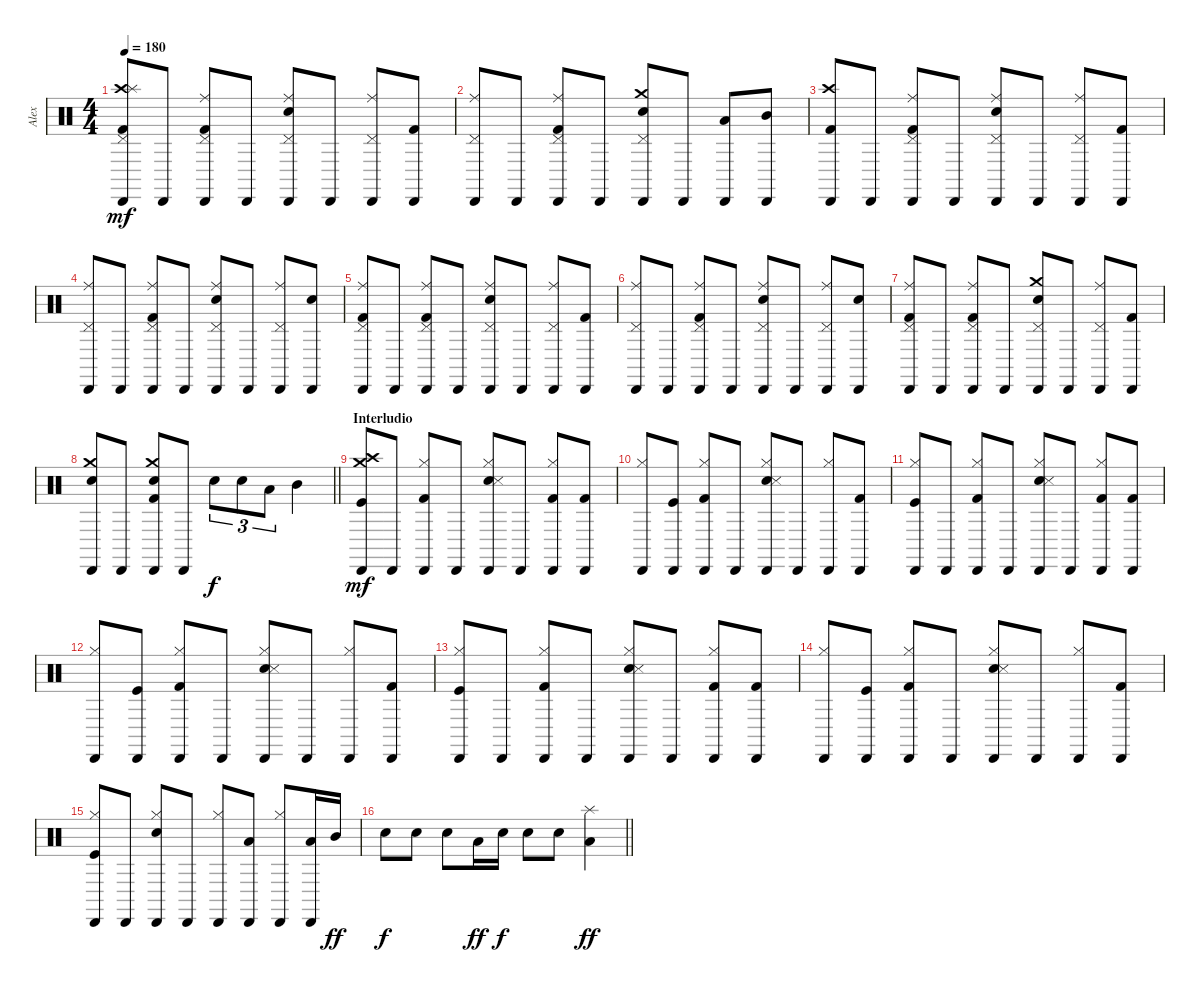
\track ("Alex" "Alex") {instrument percussion}
\staff {score}
\articulation defaults
\ts (4 4)
\tempo 180
\clef neutral
\ks c
("Crash high (hit)" "Pedal Hi-Hat (hit)" "Splash (hit)" "Kick (hit) 2" "Cabasa (hit)").8{dy mf} "Cabasa (hit)".8 ("Ride (middle)" "Pedal Hi-Hat (hit)" "Kick (hit) 2" "Cabasa (hit)").8 "Cabasa (hit)".8 ("Ride (middle)" "Pedal Hi-Hat (hit)" "Snare (hit) 2" "Cabasa (hit)").8 "Cabasa (hit)".8 ("Ride (middle)" "Pedal Hi-Hat (hit)" "Cabasa (hit)").8 ("Kick (hit) 2" "Cabasa (hit)").8 |
("Ride (middle)" "Pedal Hi-Hat (hit)" "Cabasa (hit)").8 "Cabasa (hit)".8 ("Ride (middle)" "Pedal Hi-Hat (hit)" "Kick (hit) 2" "Cabasa (hit)").8 "Cabasa (hit)".8 ("Crash medium (hit)" "Pedal Hi-Hat (hit)" "Snare (hit) 2" "Cabasa (hit)").8 "Cabasa (hit)".8 ("Low Tom (hit)" "Cabasa (hit)").8 ("Mid Tom (hit)" "Cabasa (hit)").8 |
("Crash high (hit)" "Kick (hit) 2" "Cabasa (hit)").8 "Cabasa (hit)".8 ("Ride (middle)" "Pedal Hi-Hat (hit)" "Kick (hit) 2" "Cabasa (hit)").8 "Cabasa (hit)".8 ("Ride (middle)" "Pedal Hi-Hat (hit)" "Snare (hit) 2" "Cabasa (hit)").8 "Cabasa (hit)".8 ("Ride (middle)" "Pedal Hi-Hat (hit)" "Cabasa (hit)").8 ("Kick (hit) 2" "Cabasa (hit)").8 |
("Ride (middle)" "Pedal Hi-Hat (hit)" "Cabasa (hit)").8 "Cabasa (hit)".8 ("Ride (middle)" "Pedal Hi-Hat (hit)" "Kick (hit) 2" "Cabasa (hit)").8 "Cabasa (hit)".8 ("Ride (middle)" "Pedal Hi-Hat (hit)" "Snare (hit) 2" "Cabasa (hit)").8 "Cabasa (hit)".8 ("Ride (middle)" "Pedal Hi-Hat (hit)" "Cabasa (hit)").8 ("Snare (hit) 2" "Cabasa (hit)").8 |
("Ride (middle)" "Pedal Hi-Hat (hit)" "Kick (hit) 2" "Cabasa (hit)").8 "Cabasa (hit)".8 ("Ride (middle)" "Pedal Hi-Hat (hit)" "Kick (hit) 2" "Cabasa (hit)").8 "Cabasa (hit)".8 ("Ride (middle)" "Pedal Hi-Hat (hit)" "Snare (hit) 2" "Cabasa (hit)").8 "Cabasa (hit)".8 ("Ride (middle)" "Pedal Hi-Hat (hit)" "Cabasa (hit)").8 ("Kick (hit) 2" "Cabasa (hit)").8 |
("Ride (middle)" "Pedal Hi-Hat (hit)" "Cabasa (hit)").8 "Cabasa (hit)".8 ("Ride (middle)" "Pedal Hi-Hat (hit)" "Kick (hit) 2" "Cabasa (hit)").8 "Cabasa (hit)".8 ("Ride (middle)" "Pedal Hi-Hat (hit)" "Snare (hit) 2" "Cabasa (hit)").8 "Cabasa (hit)".8 ("Ride (middle)" "Pedal Hi-Hat (hit)" "Cabasa (hit)").8 ("Snare (hit) 2" "Cabasa (hit)").8 |
("Ride (middle)" "Pedal Hi-Hat (hit)" "Kick (hit) 2" "Cabasa (hit)").8 "Cabasa (hit)".8 ("Ride (middle)" "Pedal Hi-Hat (hit)" "Kick (hit) 2" "Cabasa (hit)").8 "Cabasa (hit)".8 ("Crash medium (hit)" "Pedal Hi-Hat (hit)" "Snare (hit) 2" "Cabasa (hit)").8 "Cabasa (hit)".8 ("Ride (middle)" "Pedal Hi-Hat (hit)" "Cabasa (hit)").8 ("Kick (hit) 2" "Cabasa (hit)").8 |
\barLineRight lightlight
("Crash medium (hit)" "Snare (hit) 2" "Cabasa (hit)").8 "Cabasa (hit)".8 ("Crash medium (hit)" "Snare (hit) 2" "Kick (hit) 2" "Cabasa (hit)").8 "Cabasa (hit)".8 "Snare (hit) 2".8{tu (3 2) dy f} "Snare (hit) 2".8{tu (3 2)} "Low Tom (hit)".8{tu (3 2)} "Mid Tom (hit)".4 |
\section ("" "Interludio")
("Crash medium (hit)" "Crash high (hit)" "Kick (hit)" "Cabasa (hit)").8{dy mf} "Cabasa (hit)".8 ("Hi-Hat (closed)" "Kick (hit) 2" "Cabasa (hit)").8 "Cabasa (hit)".8 ("Hi-Hat (closed)" "Hand Clap (hit)" "Snare (side stick) 3" "Cabasa (hit)").8 "Cabasa (hit)".8 ("Hi-Hat (closed)" "Kick (hit) 2" "Cabasa (hit)").8 ("Kick (hit) 2" "Cabasa (hit)").8 |
("Hi-Hat (closed)" "Cabasa (hit)").8 ("Kick (hit)" "Cabasa (hit)").8 ("Hi-Hat (closed)" "Kick (hit) 2" "Cabasa (hit)").8 "Cabasa (hit)".8 ("Hi-Hat (closed)" "Hand Clap (hit)" "Snare (side stick) 3" "Cabasa (hit)").8 "Cabasa (hit)".8 ("Hi-Hat (closed)" "Cabasa (hit)").8 ("Kick (hit) 2" "Cabasa (hit)").8 |
("Hi-Hat (closed)" "Kick (hit)" "Cabasa (hit)").8 "Cabasa (hit)".8 ("Hi-Hat (closed)" "Kick (hit) 2" "Cabasa (hit)").8 "Cabasa (hit)".8 ("Hi-Hat (closed)" "Hand Clap (hit)" "Snare (side stick) 3" "Cabasa (hit)").8 "Cabasa (hit)".8 ("Hi-Hat (closed)" "Kick (hit) 2" "Cabasa (hit)").8 ("Kick (hit) 2" "Cabasa (hit)").8 |
("Hi-Hat (closed)" "Cabasa (hit)").8 ("Kick (hit)" "Cabasa (hit)").8 ("Hi-Hat (closed)" "Kick (hit) 2" "Cabasa (hit)").8 "Cabasa (hit)".8 ("Hi-Hat (closed)" "Hand Clap (hit)" "Snare (side stick) 3" "Cabasa (hit)").8 "Cabasa (hit)".8 ("Hi-Hat (closed)" "Cabasa (hit)").8 ("Kick (hit) 2" "Cabasa (hit)").8 |
("Hi-Hat (closed)" "Kick (hit)" "Cabasa (hit)").8 "Cabasa (hit)".8 ("Hi-Hat (closed)" "Kick (hit) 2" "Cabasa (hit)").8 "Cabasa (hit)".8 ("Hi-Hat (closed)" "Hand Clap (hit)" "Snare (side stick) 3" "Cabasa (hit)").8 "Cabasa (hit)".8 ("Hi-Hat (closed)" "Kick (hit) 2" "Cabasa (hit)").8 ("Kick (hit) 2" "Cabasa (hit)").8 |
("Hi-Hat (closed)" "Cabasa (hit)").8 ("Kick (hit)" "Cabasa (hit)").8 ("Hi-Hat (closed)" "Kick (hit) 2" "Cabasa (hit)").8 "Cabasa (hit)".8 ("Hi-Hat (closed)" "Hand Clap (hit)" "Snare (side stick) 3" "Cabasa (hit)").8 "Cabasa (hit)".8 ("Hi-Hat (closed)" "Cabasa (hit)").8 ("Kick (hit) 2" "Cabasa (hit)").8 |
("Hi-Hat (closed)" "Kick (hit)" "Cabasa (hit)").8 "Cabasa (hit)".8 ("Hi-Hat (closed)" "Snare (hit) 2" "Cabasa (hit)").8 "Cabasa (hit)".8 ("Hi-Hat (closed)" "Cabasa (hit)").8 ("Low Tom (hit)" "Cabasa (hit)").8 ("Hi-Hat (closed)" "Cabasa (hit)").8 ("Low Tom (hit)" "Cabasa (hit)").16 "Mid Tom (hit)".16{dy ff} |
\barLineRight lightlight "Snare (hit) 2".8{dy f} "Snare (hit) 2".8 "Snare (hit) 2".8 "Low Tom (hit)".16{dy ff} "Snare (hit) 2".16{dy f} "Snare (hit) 2".8 "Snare (hit) 2".8
("Splash (hit)" "Low Tom (hit)").4{dy ff}
